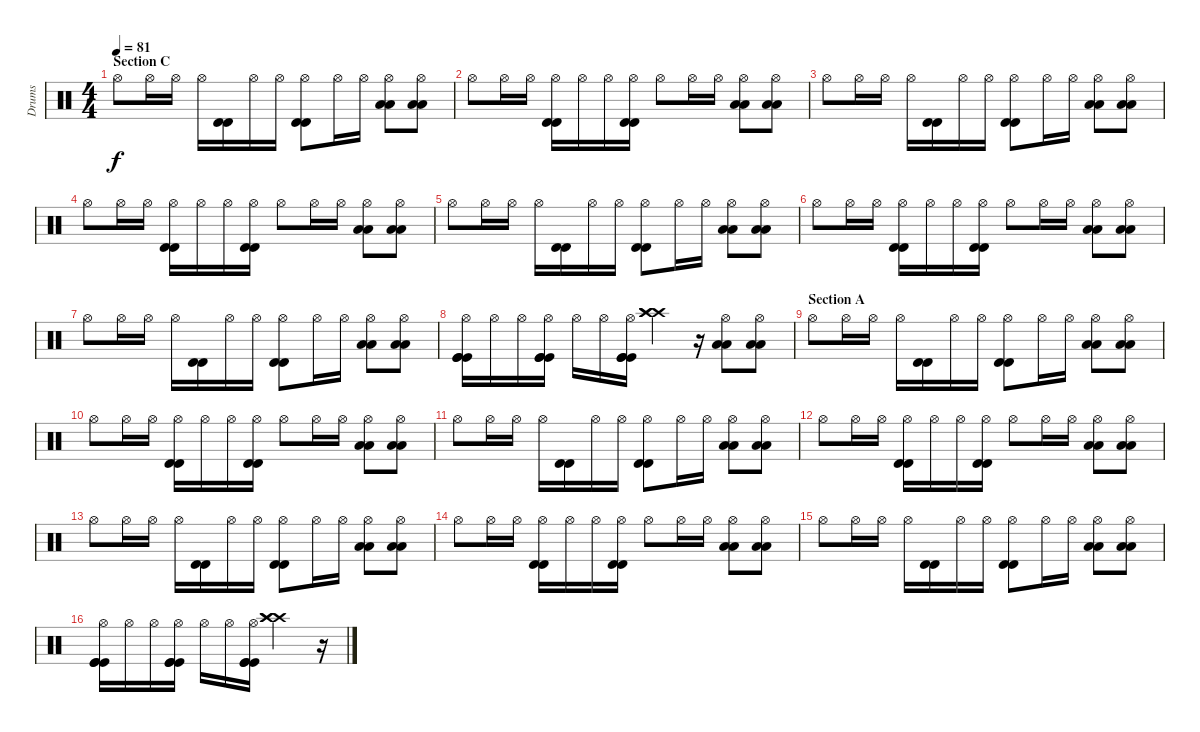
\track ("Drums" "Drums") {instrument percussion}
\staff {score}
\articulation defaults
\ts (4 4)
\section ("" "Section C")
\tempo 81
\clef neutral
\ks c "Hi-Hat (open)".8{dy f} "Hi-Hat (open)".16 "Hi-Hat (open)".16 "Hi-Hat (open)".16
("Timbale high (hit)" "Timbale high (hit)").16 "Hi-Hat (open)".16 "Hi-Hat (open)".16 ("Hi-Hat (open)" "Timbale high (hit)" "Timbale high (hit)").8 "Hi-Hat (open)".16 "Hi-Hat (open)".16 ("Hi-Hat (open)" "Low Tom (hit)" "Low Tom (hit)").8 ("Hi-Hat (open)" "Low Tom (hit)" "Low Tom (hit)").8 |
"Hi-Hat (open)".8 "Hi-Hat (open)".16 "Hi-Hat (open)".16 ("Hi-Hat (open)" "Timbale high (hit)" "Timbale high (hit)").16 "Hi-Hat (open)".16 "Hi-Hat (open)".16 ("Hi-Hat (open)" "Timbale high (hit)" "Timbale high (hit)").16 "Hi-Hat (open)".8 "Hi-Hat (open)".16 "Hi-Hat (open)".16 ("Hi-Hat (open)" "Low Tom (hit)" "Low Tom (hit)").8 ("Hi-Hat (open)" "Low Tom (hit)" "Low Tom (hit)").8 |
"Hi-Hat (open)".8 "Hi-Hat (open)".16 "Hi-Hat (open)".16 "Hi-Hat (open)".16 ("Timbale high (hit)" "Timbale high (hit)").16 "Hi-Hat (open)".16 "Hi-Hat (open)".16 ("Hi-Hat (open)" "Timbale high (hit)" "Timbale high (hit)").8 "Hi-Hat (open)".16 "Hi-Hat (open)".16 ("Hi-Hat (open)" "Low Tom (hit)" "Low Tom (hit)").8 ("Hi-Hat (open)" "Low Tom (hit)" "Low Tom (hit)").8 |
"Hi-Hat (open)".8 "Hi-Hat (open)".16 "Hi-Hat (open)".16 ("Hi-Hat (open)" "Timbale high (hit)" "Timbale high (hit)").16 "Hi-Hat (open)".16 "Hi-Hat (open)".16 ("Hi-Hat (open)" "Timbale high (hit)" "Timbale high (hit)").16 "Hi-Hat (open)".8 "Hi-Hat (open)".16 "Hi-Hat (open)".16 ("Hi-Hat (open)" "Low Tom (hit)" "Low Tom (hit)").8 ("Hi-Hat (open)" "Low Tom (hit)" "Low Tom (hit)").8 |
"Hi-Hat (open)".8 "Hi-Hat (open)".16 "Hi-Hat (open)".16 "Hi-Hat (open)".16 ("Timbale high (hit)" "Timbale high (hit)").16 "Hi-Hat (open)".16 "Hi-Hat (open)".16 ("Hi-Hat (open)" "Timbale high (hit)" "Timbale high (hit)").8 "Hi-Hat (open)".16 "Hi-Hat (open)".16 ("Hi-Hat (open)" "Low Tom (hit)" "Low Tom (hit)").8 ("Hi-Hat (open)" "Low Tom (hit)" "Low Tom (hit)").8 |
"Hi-Hat (open)".8 "Hi-Hat (open)".16 "Hi-Hat (open)".16 ("Hi-Hat (open)" "Timbale high (hit)" "Timbale high (hit)").16 "Hi-Hat (open)".16 "Hi-Hat (open)".16 ("Hi-Hat (open)" "Timbale high (hit)" "Timbale high (hit)").16 "Hi-Hat (open)".8 "Hi-Hat (open)".16 "Hi-Hat (open)".16 ("Hi-Hat (open)" "Low Tom (hit)" "Low Tom (hit)").8 ("Hi-Hat (open)" "Low Tom (hit)" "Low Tom (hit)").8 |
"Hi-Hat (open)".8 "Hi-Hat (open)".16 "Hi-Hat (open)".16 "Hi-Hat (open)".16 ("Timbale high (hit)" "Timbale high (hit)").16 "Hi-Hat (open)".16 "Hi-Hat (open)".16 ("Hi-Hat (open)" "Timbale high (hit)" "Timbale high (hit)").8 "Hi-Hat (open)".16 "Hi-Hat (open)".16 ("Hi-Hat (open)" "Low Tom (hit)" "Low Tom (hit)").8 ("Hi-Hat (open)" "Low Tom (hit)" "Low Tom (hit)").8 |
("Hi-Hat (open)" "Kick (hit)" "Kick (hit)" "Kick (hit)").16 "Hi-Hat (open)".16 "Hi-Hat (open)".16 ("Hi-Hat (open)" "Kick (hit)" "Kick (hit)" "Kick (hit)").16 "Hi-Hat (open)".16 "Hi-Hat (open)".16 ("Hi-Hat (open)" "Kick (hit)" "Kick (hit)" "Kick (hit)").16 ("Crash high (hit)" "Crash high (hit)" "Crash high (hit)").4 r.16 ("Hi-Hat (open)" "Low Tom (hit)" "Low Tom (hit)").8 ("Hi-Hat (open)" "Low Tom (hit)" "Low Tom (hit)").8 |
\section ("" "Section A")
"Hi-Hat (open)".8 "Hi-Hat (open)".16 "Hi-Hat (open)".16 "Hi-Hat (open)".16 ("Timbale high (hit)" "Timbale high (hit)").16 "Hi-Hat (open)".16 "Hi-Hat (open)".16 ("Hi-Hat (open)" "Timbale high (hit)" "Timbale high (hit)").8 "Hi-Hat (open)".16 "Hi-Hat (open)".16 ("Hi-Hat (open)" "Low Tom (hit)" "Low Tom (hit)").8 ("Hi-Hat (open)" "Low Tom (hit)" "Low Tom (hit)").8 |
"Hi-Hat (open)".8 "Hi-Hat (open)".16 "Hi-Hat (open)".16 ("Hi-Hat (open)" "Timbale high (hit)" "Timbale high (hit)").16 "Hi-Hat (open)".16 "Hi-Hat (open)".16 ("Hi-Hat (open)" "Timbale high (hit)" "Timbale high (hit)").16 "Hi-Hat (open)".8 "Hi-Hat (open)".16 "Hi-Hat (open)".16 ("Hi-Hat (open)" "Low Tom (hit)" "Low Tom (hit)").8 ("Hi-Hat (open)" "Low Tom (hit)" "Low Tom (hit)").8 |
"Hi-Hat (open)".8 "Hi-Hat (open)".16 "Hi-Hat (open)".16 "Hi-Hat (open)".16 ("Timbale high (hit)" "Timbale high (hit)").16 "Hi-Hat (open)".16 "Hi-Hat (open)".16 ("Hi-Hat (open)" "Timbale high (hit)" "Timbale high (hit)").8 "Hi-Hat (open)".16 "Hi-Hat (open)".16 ("Hi-Hat (open)" "Low Tom (hit)" "Low Tom (hit)").8 ("Hi-Hat (open)" "Low Tom (hit)" "Low Tom (hit)").8 |
"Hi-Hat (open)".8 "Hi-Hat (open)".16 "Hi-Hat (open)".16 ("Hi-Hat (open)" "Timbale high (hit)" "Timbale high (hit)").16 "Hi-Hat (open)".16 "Hi-Hat (open)".16 ("Hi-Hat (open)" "Timbale high (hit)" "Timbale high (hit)").16 "Hi-Hat (open)".8 "Hi-Hat (open)".16 "Hi-Hat (open)".16 ("Hi-Hat (open)" "Low Tom (hit)" "Low Tom (hit)").8 ("Hi-Hat (open)" "Low Tom (hit)" "Low Tom (hit)").8 |
"Hi-Hat (open)".8 "Hi-Hat (open)".16 "Hi-Hat (open)".16 "Hi-Hat (open)".16 ("Timbale high (hit)" "Timbale high (hit)").16 "Hi-Hat (open)".16 "Hi-Hat (open)".16 ("Hi-Hat (open)" "Timbale high (hit)" "Timbale high (hit)").8 "Hi-Hat (open)".16 "Hi-Hat (open)".16 ("Hi-Hat (open)" "Low Tom (hit)" "Low Tom (hit)").8 ("Hi-Hat (open)" "Low Tom (hit)" "Low Tom (hit)").8 |
"Hi-Hat (open)".8 "Hi-Hat (open)".16 "Hi-Hat (open)".16 ("Hi-Hat (open)" "Timbale high (hit)" "Timbale high (hit)").16 "Hi-Hat (open)".16 "Hi-Hat (open)".16 ("Hi-Hat (open)" "Timbale high (hit)" "Timbale high (hit)").16 "Hi-Hat (open)".8 "Hi-Hat (open)".16 "Hi-Hat (open)".16 ("Hi-Hat (open)" "Low Tom (hit)" "Low Tom (hit)").8 ("Hi-Hat (open)" "Low Tom (hit)" "Low Tom (hit)").8 |
"Hi-Hat (open)".8 "Hi-Hat (open)".16 "Hi-Hat (open)".16 "Hi-Hat (open)".16 ("Timbale high (hit)" "Timbale high (hit)").16 "Hi-Hat (open)".16 "Hi-Hat (open)".16 ("Hi-Hat (open)" "Timbale high (hit)" "Timbale high (hit)").8 "Hi-Hat (open)".16 "Hi-Hat (open)".16 ("Hi-Hat (open)" "Low Tom (hit)" "Low Tom (hit)").8 ("Hi-Hat (open)" "Low Tom (hit)" "Low Tom (hit)").8 |
("Hi-Hat (open)" "Kick (hit)" "Kick (hit)" "Kick (hit)").16 "Hi-Hat (open)".16 "Hi-Hat (open)".16 ("Hi-Hat (open)" "Kick (hit)" "Kick (hit)" "Kick (hit)").16 "Hi-Hat (open)".16 "Hi-Hat (open)".16 ("Hi-Hat (open)" "Kick (hit)" "Kick (hit)" "Kick (hit)").16 ("Crash high (hit)" "Crash high (hit)" "Crash high (hit)").2 r.16
